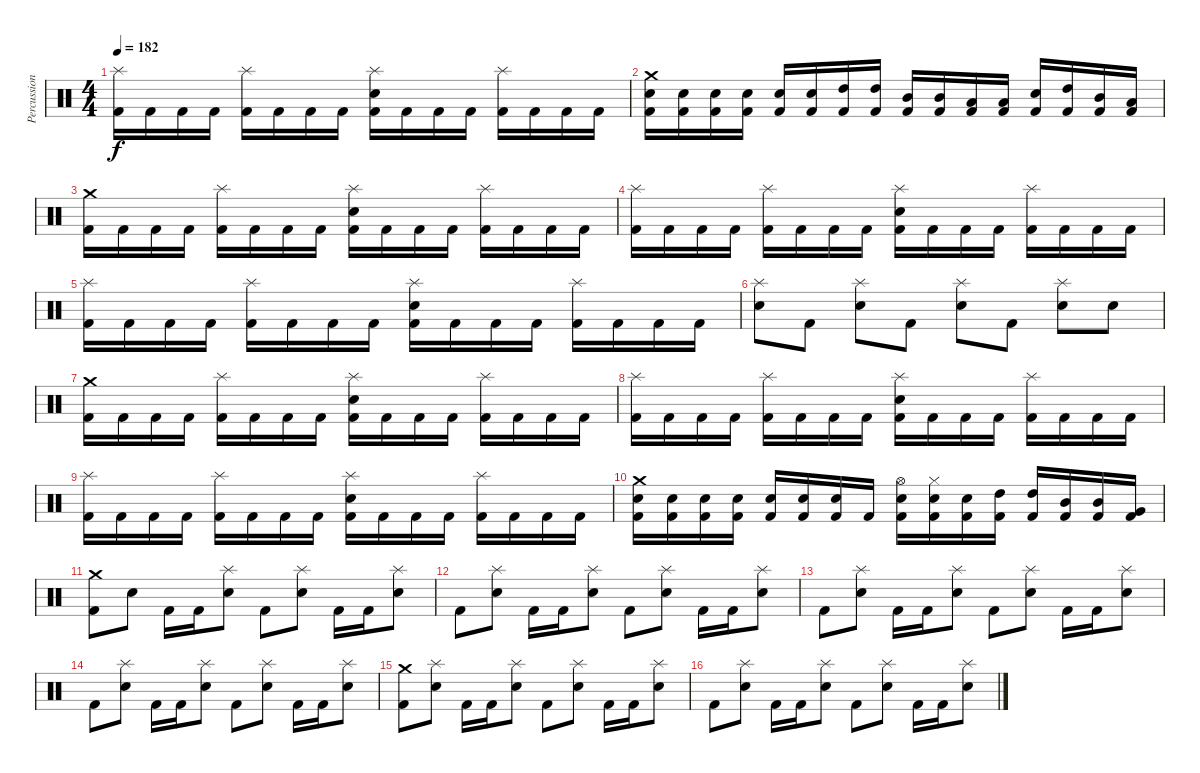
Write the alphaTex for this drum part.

\track ("Percussion" "Percussion") {instrument percussion}
\staff {score}
\articulation defaults
\ts (4 4)
\tempo 182
\clef neutral
\ks c
("Splash (hit)" "Kick (hit) 2").16{dy f} "Kick (hit) 2".16 "Kick (hit) 2".16 "Kick (hit) 2".16 ("Splash (hit)" "Kick (hit) 2").16 "Kick (hit) 2".16 "Kick (hit) 2".16 "Kick (hit) 2".16 ("Splash (hit)" "Electric Snare (hit)" "Kick (hit) 2").16 "Kick (hit) 2".16 "Kick (hit) 2".16 "Kick (hit) 2".16 ("Splash (hit)" "Kick (hit) 2").16 "Kick (hit) 2".16 "Kick (hit) 2".16 "Kick (hit) 2".16 |
("Crash medium (hit)" "Electric Snare (hit)" "Kick (hit) 2").16 ("Electric Snare (hit)" "Kick (hit) 2").16 ("Electric Snare (hit)" "Kick (hit) 2").16 ("Electric Snare (hit)" "Kick (hit) 2").16 ("Electric Snare (hit)" "Kick (hit) 2").16 ("Electric Snare (hit)" "Kick (hit) 2").16 ("High Tom (hit)" "Kick (hit) 2").16 ("High Tom (hit)" "Kick (hit) 2").16 ("Mid Tom (hit)" "Kick (hit) 2").16 ("Mid Tom (hit)" "Kick (hit) 2").16 ("Low Tom (hit)" "Kick (hit) 2").16 ("Low Tom (hit)" "Kick (hit) 2").16 ("Electric Snare (hit)" "Kick (hit) 2").16 ("High Tom (hit)" "Kick (hit) 2").16 ("Mid Tom (hit)" "Kick (hit) 2").16 ("Low Tom (hit)" "Kick (hit) 2").16 |
("Crash medium (hit)" "Kick (hit) 2").16 "Kick (hit) 2".16 "Kick (hit) 2".16 "Kick (hit) 2".16 ("Splash (hit)" "Kick (hit) 2").16 "Kick (hit) 2".16 "Kick (hit) 2".16 "Kick (hit) 2".16 ("Splash (hit)" "Electric Snare (hit)" "Kick (hit) 2").16 "Kick (hit) 2".16 "Kick (hit) 2".16 "Kick (hit) 2".16 ("Splash (hit)" "Kick (hit) 2").16 "Kick (hit) 2".16 "Kick (hit) 2".16 "Kick (hit) 2".16 |
("Splash (hit)" "Kick (hit) 2").16 "Kick (hit) 2".16 "Kick (hit) 2".16 "Kick (hit) 2".16 ("Splash (hit)" "Kick (hit) 2").16 "Kick (hit) 2".16 "Kick (hit) 2".16 "Kick (hit) 2".16 ("Splash (hit)" "Electric Snare (hit)" "Kick (hit) 2").16 "Kick (hit) 2".16 "Kick (hit) 2".16 "Kick (hit) 2".16 ("Splash (hit)" "Kick (hit) 2").16 "Kick (hit) 2".16 "Kick (hit) 2".16 "Kick (hit) 2".16 |
("Splash (hit)" "Kick (hit) 2").16 "Kick (hit) 2".16 "Kick (hit) 2".16 "Kick (hit) 2".16 ("Splash (hit)" "Kick (hit) 2").16 "Kick (hit) 2".16 "Kick (hit) 2".16 "Kick (hit) 2".16 ("Splash (hit)" "Electric Snare (hit)" "Kick (hit) 2").16 "Kick (hit) 2".16 "Kick (hit) 2".16 "Kick (hit) 2".16 ("Splash (hit)" "Kick (hit) 2").16 "Kick (hit) 2".16 "Kick (hit) 2".16 "Kick (hit) 2".16 |
("Splash (hit)" "Electric Snare (hit)").8 "Kick (hit) 2".8 ("Splash (hit)" "Electric Snare (hit)").8 "Kick (hit) 2".8 ("Splash (hit)" "Electric Snare (hit)").8 "Kick (hit) 2".8 ("Splash (hit)" "Electric Snare (hit)").8 "Electric Snare (hit)".8 |
("Crash medium (hit)" "Kick (hit) 2").16 "Kick (hit) 2".16 "Kick (hit) 2".16 "Kick (hit) 2".16 ("Splash (hit)" "Kick (hit) 2").16 "Kick (hit) 2".16 "Kick (hit) 2".16 "Kick (hit) 2".16 ("Splash (hit)" "Electric Snare (hit)" "Kick (hit) 2").16 "Kick (hit) 2".16 "Kick (hit) 2".16 "Kick (hit) 2".16 ("Splash (hit)" "Kick (hit) 2").16 "Kick (hit) 2".16 "Kick (hit) 2".16 "Kick (hit) 2".16 |
("Splash (hit)" "Kick (hit) 2").16 "Kick (hit) 2".16 "Kick (hit) 2".16 "Kick (hit) 2".16 ("Splash (hit)" "Kick (hit) 2").16 "Kick (hit) 2".16 "Kick (hit) 2".16 "Kick (hit) 2".16 ("Splash (hit)" "Electric Snare (hit)" "Kick (hit) 2").16 "Kick (hit) 2".16 "Kick (hit) 2".16 "Kick (hit) 2".16 ("Splash (hit)" "Kick (hit) 2").16 "Kick (hit) 2".16 "Kick (hit) 2".16 "Kick (hit) 2".16 |
("Splash (hit)" "Kick (hit) 2").16 "Kick (hit) 2".16 "Kick (hit) 2".16 "Kick (hit) 2".16 ("Splash (hit)" "Kick (hit) 2").16 "Kick (hit) 2".16 "Kick (hit) 2".16 "Kick (hit) 2".16 ("Splash (hit)" "Electric Snare (hit)" "Kick (hit) 2").16 "Kick (hit) 2".16 "Kick (hit) 2".16 "Kick (hit) 2".16 ("Splash (hit)" "Kick (hit) 2").16 "Kick (hit) 2".16 "Kick (hit) 2".16 "Kick (hit) 2".16 |
("Crash medium (hit)" "Electric Snare (hit)" "Kick (hit) 2").16 ("Electric Snare (hit)" "Kick (hit) 2").16 ("Electric Snare (hit)" "Kick (hit) 2").16 ("Electric Snare (hit)" "Kick (hit) 2").16 ("Electric Snare (hit)" "Kick (hit) 2").16 ("Electric Snare (hit)" "Kick (hit) 2").16 ("Electric Snare (hit)" "Kick (hit) 2").16 "Kick (hit) 2".16 ("Hi-Hat (open)" "Electric Snare (hit)" "Kick (hit) 2").16 ("Hi-Hat (closed)" "Electric Snare (hit)" "Kick (hit) 2").16 ("Electric Snare (hit)" "Kick (hit) 2").16 ("High Tom (hit)" "Kick (hit) 2").16 ("High Tom (hit)" "Kick (hit) 2").16 ("Mid Tom (hit)" "Kick (hit) 2").16 ("Mid Tom (hit)" "Kick (hit) 2").16 ("Very Low Tom (hit)" "Kick (hit) 2").16 |
("Crash medium (hit)" "Kick (hit) 2").8 "Electric Snare (hit)".8 "Kick (hit) 2".16 "Kick (hit) 2".16 ("Splash (hit)" "Electric Snare (hit)").8 "Kick (hit) 2".8 ("Splash (hit)" "Electric Snare (hit)").8 "Kick (hit) 2".16 "Kick (hit) 2".16 ("Splash (hit)" "Electric Snare (hit)").8 |
"Kick (hit) 2".8 ("Splash (hit)" "Electric Snare (hit)").8 "Kick (hit) 2".16 "Kick (hit) 2".16 ("Splash (hit)" "Electric Snare (hit)").8 "Kick (hit) 2".8 ("Splash (hit)" "Electric Snare (hit)").8 "Kick (hit) 2".16 "Kick (hit) 2".16 ("Splash (hit)" "Electric Snare (hit)").8 |
"Kick (hit) 2".8 ("Splash (hit)" "Electric Snare (hit)").8 "Kick (hit) 2".16 "Kick (hit) 2".16 ("Splash (hit)" "Electric Snare (hit)").8 "Kick (hit) 2".8 ("Splash (hit)" "Electric Snare (hit)").8 "Kick (hit) 2".16 "Kick (hit) 2".16 ("Splash (hit)" "Electric Snare (hit)").8 |
"Kick (hit) 2".8 ("Splash (hit)" "Electric Snare (hit)").8 "Kick (hit) 2".16 "Kick (hit) 2".16 ("Splash (hit)" "Electric Snare (hit)").8 "Kick (hit) 2".8 ("Splash (hit)" "Electric Snare (hit)").8 "Kick (hit) 2".16 "Kick (hit) 2".16 ("Splash (hit)" "Electric Snare (hit)").8 |
("Crash medium (hit)" "Kick (hit) 2").8 ("Splash (hit)" "Electric Snare (hit)").8 "Kick (hit) 2".16 "Kick (hit) 2".16 ("Splash (hit)" "Electric Snare (hit)").8 "Kick (hit) 2".8 ("Splash (hit)" "Electric Snare (hit)").8 "Kick (hit) 2".16 "Kick (hit) 2".16 ("Splash (hit)" "Electric Snare (hit)").8 |
"Kick (hit) 2".8 ("Splash (hit)" "Electric Snare (hit)").8 "Kick (hit) 2".16 "Kick (hit) 2".16 ("Splash (hit)" "Electric Snare (hit)").8 "Kick (hit) 2".8 ("Splash (hit)" "Electric Snare (hit)").8 "Kick (hit) 2".16 "Kick (hit) 2".16 ("Splash (hit)" "Electric Snare (hit)").8
